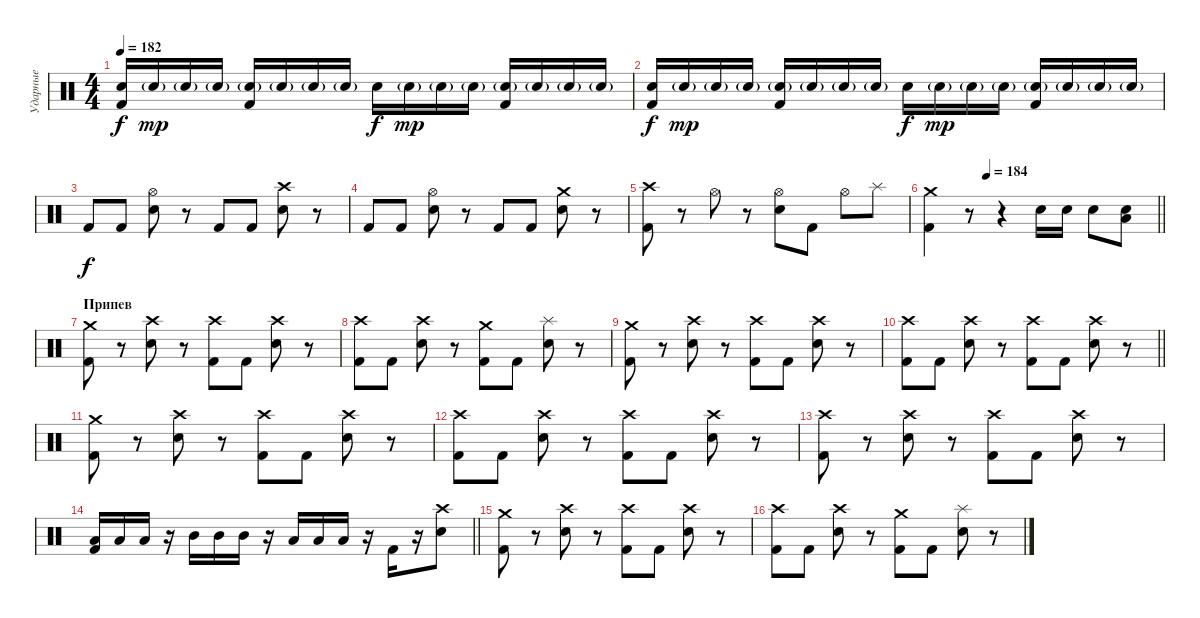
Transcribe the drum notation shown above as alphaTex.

\track ("Ударные" "Ударные") {instrument percussion}
\staff {score}
\articulation defaults
\ts (4 4)
\tempo 182
\clef neutral
\ks c
("Snare (hit) 2" "Kick (hit) 2").16{dy f} "Snare (hit) 2"{g}.16{dy mp} "Snare (hit) 2"{g}.16 "Snare (hit) 2"{g}.16 ("Snare (hit) 2"{g} "Kick (hit) 2").16 "Snare (hit) 2"{g}.16 "Snare (hit) 2"{g}.16 "Snare (hit) 2"{g}.16 "Snare (hit) 2".16{dy f} "Snare (hit) 2"{g}.16{dy mp} "Snare (hit) 2"{g}.16 "Snare (hit) 2"{g}.16 ("Snare (hit) 2"{g} "Kick (hit) 2").16 "Snare (hit) 2"{g}.16 "Snare (hit) 2"{g}.16 "Snare (hit) 2"{g}.16 |
("Snare (hit) 2" "Kick (hit) 2").16{dy f} "Snare (hit) 2"{g}.16{dy mp} "Snare (hit) 2"{g}.16 "Snare (hit) 2"{g}.16 ("Snare (hit) 2"{g} "Kick (hit) 2").16 "Snare (hit) 2"{g}.16 "Snare (hit) 2"{g}.16 "Snare (hit) 2"{g}.16 "Snare (hit) 2".16{dy f} "Snare (hit) 2"{g}.16{dy mp} "Snare (hit) 2"{g}.16 "Snare (hit) 2"{g}.16 ("Snare (hit) 2"{g} "Kick (hit) 2").16 "Snare (hit) 2"{g}.16 "Snare (hit) 2"{g}.16 "Snare (hit) 2"{g}.16 |
"Kick (hit) 2".8{dy f} "Kick (hit) 2".8 ("Hi-Hat (open)" "Snare (hit) 2").8 r.8 "Kick (hit) 2".8 "Kick (hit) 2".8 ("Crash high (hit)" "Snare (hit) 2").8 r.8 |
"Kick (hit) 2".8 "Kick (hit) 2".8 ("Hi-Hat (open)" "Snare (hit) 2").8 r.8 "Kick (hit) 2".8 "Kick (hit) 2".8 ("Crash medium (hit)" "Snare (hit) 2").8 r.8 |
("Crash high (hit)" "Kick (hit) 2").8 r.8 "Hi-Hat (open)".8 r.8 ("Hi-Hat (open)" "Snare (hit) 2").8 "Kick (hit) 2".8 "Hi-Hat (open)".8 "Splash (hit)".8 |
\tempo (184 0.25)
\barLineRight lightlight
("Crash medium (hit)" "Kick (hit) 2").4 r.8 r.4 "Snare (hit) 2".16 "Snare (hit) 2".16 "Snare (hit) 2".8 ("Low Floor Tom (hit)" "Snare (hit) 2").8 |
\section ("" "Припев")
("Crash medium (hit)" "Kick (hit) 2").8 r.8 ("Crash high (hit)" "Snare (hit) 2").8 r.8 ("Crash high (hit)" "Kick (hit) 2").8 "Kick (hit) 2".8 ("Crash high (hit)" "Snare (hit) 2").8 r.8 |
("Crash high (hit)" "Kick (hit) 2").8 "Kick (hit) 2".8 ("Crash high (hit)" "Snare (hit) 2").8 r.8 ("Crash medium (hit)" "Kick (hit) 2").8 "Kick (hit) 2".8 ("Splash (hit)" "Snare (hit) 2").8 r.8 |
("Crash medium (hit)" "Kick (hit) 2").8 r.8 ("Crash high (hit)" "Snare (hit) 2").8 r.8 ("Crash high (hit)" "Kick (hit) 2").8 "Kick (hit) 2".8 ("Crash high (hit)" "Snare (hit) 2").8 r.8 |
\barLineRight lightlight
("Crash high (hit)" "Kick (hit) 2").8 "Kick (hit) 2".8 ("Crash high (hit)" "Snare (hit) 2").8 r.8 ("Crash high (hit)" "Kick (hit) 2").8 "Kick (hit) 2".8 ("Crash high (hit)" "Snare (hit) 2").8 r.8 |
("Crash medium (hit)" "Kick (hit) 2").8 r.8 ("Crash high (hit)" "Snare (hit) 2").8 r.8 ("Crash high (hit)" "Kick (hit) 2").8 "Kick (hit) 2".8 ("Crash high (hit)" "Snare (hit) 2").8 r.8 |
("Crash high (hit)" "Kick (hit) 2").8 "Kick (hit) 2".8 ("Crash high (hit)" "Snare (hit) 2").8 r.8 ("Crash high (hit)" "Kick (hit) 2").8 "Kick (hit) 2".8 ("Crash high (hit)" "Snare (hit) 2").8 r.8 |
("Crash high (hit)" "Kick (hit) 2").8 r.8 ("Crash high (hit)" "Snare (hit) 2").8 r.8 ("Crash high (hit)" "Kick (hit) 2").8 "Kick (hit) 2".8 ("Crash high (hit)" "Snare (hit) 2").8 r.8 |
\barLineRight lightlight
("Low Floor Tom (hit)" "Kick (hit) 2").16 "Low Floor Tom (hit)".16 "Low Floor Tom (hit)".16 r.16 "Mid Tom (hit)".16 "Mid Tom (hit)".16 "Mid Tom (hit)".16 r.16 "Low Tom (hit)".16 "Low Tom (hit)".16 "Low Tom (hit)".16 r.16 "Kick (hit) 2".16 r.16 ("Crash high (hit)" "Snare (hit) 2").8 |
("Crash medium (hit)" "Kick (hit) 2").8 r.8 ("Crash high (hit)" "Snare (hit) 2").8 r.8 ("Crash high (hit)" "Kick (hit) 2").8 "Kick (hit) 2".8 ("Crash high (hit)" "Snare (hit) 2").8 r.8 |
("Crash high (hit)" "Kick (hit) 2").8 "Kick (hit) 2".8 ("Crash high (hit)" "Snare (hit) 2").8 r.8 ("Crash medium (hit)" "Kick (hit) 2").8 "Kick (hit) 2".8 ("Splash (hit)" "Snare (hit) 2").8 r.8
